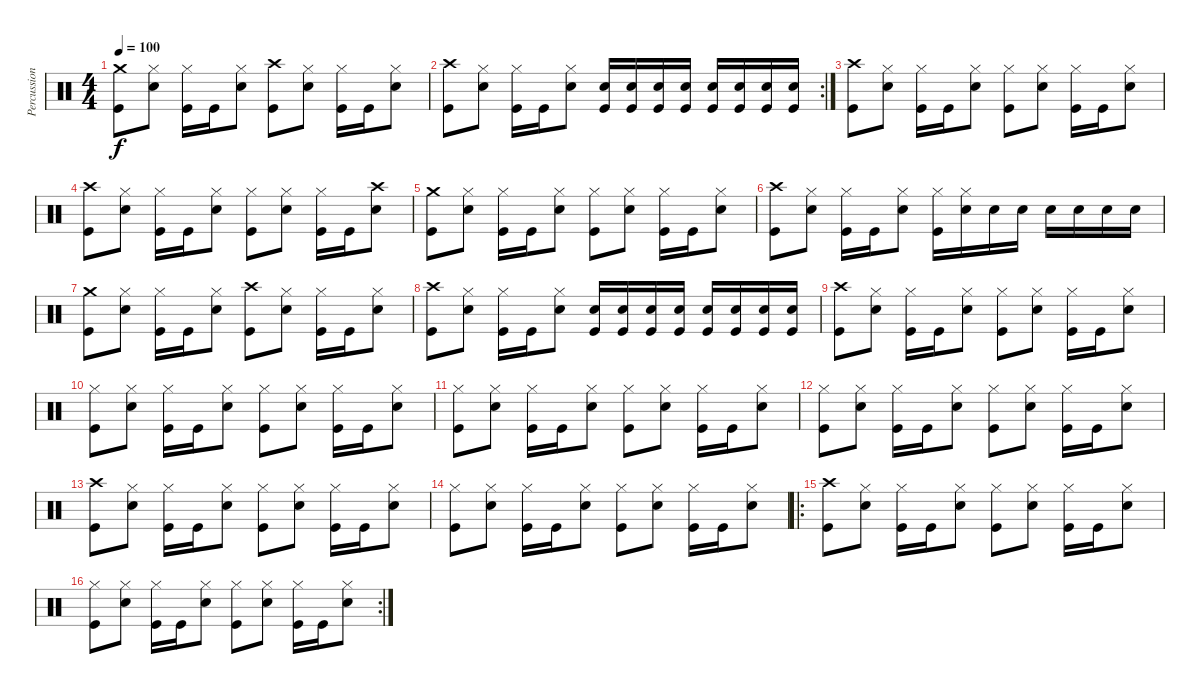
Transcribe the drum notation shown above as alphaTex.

\track ("Percussion" "Percussion") {instrument percussion}
\staff {score}
\articulation defaults
\ts (4 4)
\tempo 100
\clef neutral
\ks c
("Crash medium (hit)" "Kick (hit)").8{dy f} ("Hi-Hat (closed)" "Snare (hit) 2").8 ("Hi-Hat (closed)" "Kick (hit)").16 "Kick (hit)".16 ("Hi-Hat (closed)" "Snare (hit) 2").8 ("Crash high (hit)" "Kick (hit)").8 ("Hi-Hat (closed)" "Snare (hit) 2").8 ("Hi-Hat (closed)" "Kick (hit)").16 "Kick (hit)".16 ("Hi-Hat (closed)" "Snare (hit) 2").8 |
\rc 2
("Crash high (hit)" "Kick (hit)").8 ("Hi-Hat (closed)" "Snare (hit) 2").8 ("Hi-Hat (closed)" "Kick (hit)").16 "Kick (hit)".16 ("Hi-Hat (closed)" "Snare (hit) 2").8 ("Snare (hit) 2" "Kick (hit)").16 ("Snare (hit) 2" "Kick (hit)").16 ("Snare (hit) 2" "Kick (hit)").16 ("Snare (hit) 2" "Kick (hit)").16 ("Snare (hit) 2" "Kick (hit)").16 ("Snare (hit) 2" "Kick (hit)").16 ("Snare (hit) 2" "Kick (hit)").16 ("Snare (hit) 2" "Kick (hit)").16 |
("Crash high (hit)" "Kick (hit)").8 ("Hi-Hat (closed)" "Snare (hit) 2").8 ("Hi-Hat (closed)" "Kick (hit)").16 "Kick (hit)".16 ("Hi-Hat (closed)" "Snare (hit) 2").8 ("Hi-Hat (closed)" "Kick (hit)").8 ("Hi-Hat (closed)" "Snare (hit) 2").8 ("Hi-Hat (closed)" "Kick (hit)").16 "Kick (hit)".16 ("Hi-Hat (closed)" "Snare (hit) 2").8 |
("Crash high (hit)" "Kick (hit)").8 ("Hi-Hat (closed)" "Snare (hit) 2").8 ("Hi-Hat (closed)" "Kick (hit)").16 "Kick (hit)".16 ("Hi-Hat (closed)" "Snare (hit) 2").8 ("Hi-Hat (closed)" "Kick (hit)").8 ("Hi-Hat (closed)" "Snare (hit) 2").8 ("Hi-Hat (closed)" "Kick (hit)").16 "Kick (hit)".16 ("Crash high (hit)" "Snare (hit) 2").8 |
("Crash medium (hit)" "Kick (hit)").8 ("Hi-Hat (closed)" "Snare (hit) 2").8 ("Hi-Hat (closed)" "Kick (hit)").16 "Kick (hit)".16 ("Hi-Hat (closed)" "Snare (hit) 2").8 ("Hi-Hat (closed)" "Kick (hit)").8 ("Hi-Hat (closed)" "Snare (hit) 2").8 ("Hi-Hat (closed)" "Kick (hit)").16 "Kick (hit)".16 ("Hi-Hat (closed)" "Snare (hit) 2").8 |
("Crash high (hit)" "Kick (hit)").8 ("Hi-Hat (closed)" "Snare (hit) 2").8 ("Hi-Hat (closed)" "Kick (hit)").16 "Kick (hit)".16 ("Hi-Hat (closed)" "Snare (hit) 2").8 ("Hi-Hat (closed)" "Kick (hit)").16 ("Hi-Hat (closed)" "Snare (hit) 2").16 "Snare (hit) 2".16 "Snare (hit) 2".16 "Snare (hit) 2".16 "Snare (hit) 2".16 "Snare (hit) 2".16 "Snare (hit) 2".16 |
("Crash medium (hit)" "Kick (hit)").8 ("Hi-Hat (closed)" "Snare (hit) 2").8 ("Hi-Hat (closed)" "Kick (hit)").16 "Kick (hit)".16 ("Hi-Hat (closed)" "Snare (hit) 2").8 ("Crash high (hit)" "Kick (hit)").8 ("Hi-Hat (closed)" "Snare (hit) 2").8 ("Hi-Hat (closed)" "Kick (hit)").16 "Kick (hit)".16 ("Hi-Hat (closed)" "Snare (hit) 2").8 |
("Crash high (hit)" "Kick (hit)").8 ("Hi-Hat (closed)" "Snare (hit) 2").8 ("Hi-Hat (closed)" "Kick (hit)").16 "Kick (hit)".16 ("Hi-Hat (closed)" "Snare (hit) 2").8 ("Snare (hit) 2" "Kick (hit)").16 ("Snare (hit) 2" "Kick (hit)").16 ("Snare (hit) 2" "Kick (hit)").16 ("Snare (hit) 2" "Kick (hit)").16 ("Snare (hit) 2" "Kick (hit)").16 ("Snare (hit) 2" "Kick (hit)").16 ("Snare (hit) 2" "Kick (hit)").16 ("Snare (hit) 2" "Kick (hit)").16 |
("Crash high (hit)" "Kick (hit)").8 ("Hi-Hat (closed)" "Snare (hit) 2").8 ("Hi-Hat (closed)" "Kick (hit)").16 "Kick (hit)".16 ("Hi-Hat (closed)" "Snare (hit) 2").8 ("Hi-Hat (closed)" "Kick (hit)").8 ("Hi-Hat (closed)" "Snare (hit) 2").8 ("Hi-Hat (closed)" "Kick (hit)").16 "Kick (hit)".16 ("Hi-Hat (closed)" "Snare (hit) 2").8 |
("Hi-Hat (closed)" "Kick (hit)").8 ("Hi-Hat (closed)" "Snare (hit) 2").8 ("Hi-Hat (closed)" "Kick (hit)").16 "Kick (hit)".16 ("Hi-Hat (closed)" "Snare (hit) 2").8 ("Hi-Hat (closed)" "Kick (hit)").8 ("Hi-Hat (closed)" "Snare (hit) 2").8 ("Hi-Hat (closed)" "Kick (hit)").16 "Kick (hit)".16 ("Hi-Hat (closed)" "Snare (hit) 2").8 |
("Hi-Hat (closed)" "Kick (hit)").8 ("Hi-Hat (closed)" "Snare (hit) 2").8 ("Hi-Hat (closed)" "Kick (hit)").16 "Kick (hit)".16 ("Hi-Hat (closed)" "Snare (hit) 2").8 ("Hi-Hat (closed)" "Kick (hit)").8 ("Hi-Hat (closed)" "Snare (hit) 2").8 ("Hi-Hat (closed)" "Kick (hit)").16 "Kick (hit)".16 ("Hi-Hat (closed)" "Snare (hit) 2").8 |
("Hi-Hat (closed)" "Kick (hit)").8 ("Hi-Hat (closed)" "Snare (hit) 2").8 ("Hi-Hat (closed)" "Kick (hit)").16 "Kick (hit)".16 ("Hi-Hat (closed)" "Snare (hit) 2").8 ("Hi-Hat (closed)" "Kick (hit)").8 ("Hi-Hat (closed)" "Snare (hit) 2").8 ("Hi-Hat (closed)" "Kick (hit)").16 "Kick (hit)".16 ("Hi-Hat (closed)" "Snare (hit) 2").8 |
("Crash high (hit)" "Kick (hit)").8 ("Hi-Hat (closed)" "Snare (hit) 2").8 ("Hi-Hat (closed)" "Kick (hit)").16 "Kick (hit)".16 ("Hi-Hat (closed)" "Snare (hit) 2").8 ("Hi-Hat (closed)" "Kick (hit)").8 ("Hi-Hat (closed)" "Snare (hit) 2").8 ("Hi-Hat (closed)" "Kick (hit)").16 "Kick (hit)".16 ("Hi-Hat (closed)" "Snare (hit) 2").8 |
("Hi-Hat (closed)" "Kick (hit)").8 ("Hi-Hat (closed)" "Snare (hit) 2").8 ("Hi-Hat (closed)" "Kick (hit)").16 "Kick (hit)".16 ("Hi-Hat (closed)" "Snare (hit) 2").8 ("Hi-Hat (closed)" "Kick (hit)").8 ("Hi-Hat (closed)" "Snare (hit) 2").8 ("Hi-Hat (closed)" "Kick (hit)").16 "Kick (hit)".16 ("Hi-Hat (closed)" "Snare (hit) 2").8 |
\ro
("Crash high (hit)" "Kick (hit)").8 ("Hi-Hat (closed)" "Snare (hit) 2").8 ("Hi-Hat (closed)" "Kick (hit)").16 "Kick (hit)".16 ("Hi-Hat (closed)" "Snare (hit) 2").8 ("Hi-Hat (closed)" "Kick (hit)").8 ("Hi-Hat (closed)" "Snare (hit) 2").8 ("Hi-Hat (closed)" "Kick (hit)").16 "Kick (hit)".16 ("Hi-Hat (closed)" "Snare (hit) 2").8 |
\rc 2
("Hi-Hat (closed)" "Kick (hit)").8 ("Hi-Hat (closed)" "Snare (hit) 2").8 ("Hi-Hat (closed)" "Kick (hit)").16 "Kick (hit)".16 ("Hi-Hat (closed)" "Snare (hit) 2").8 ("Hi-Hat (closed)" "Kick (hit)").8 ("Hi-Hat (closed)" "Snare (hit) 2").8 ("Hi-Hat (closed)" "Kick (hit)").16 "Kick (hit)".16 ("Hi-Hat (closed)" "Snare (hit) 2").8
